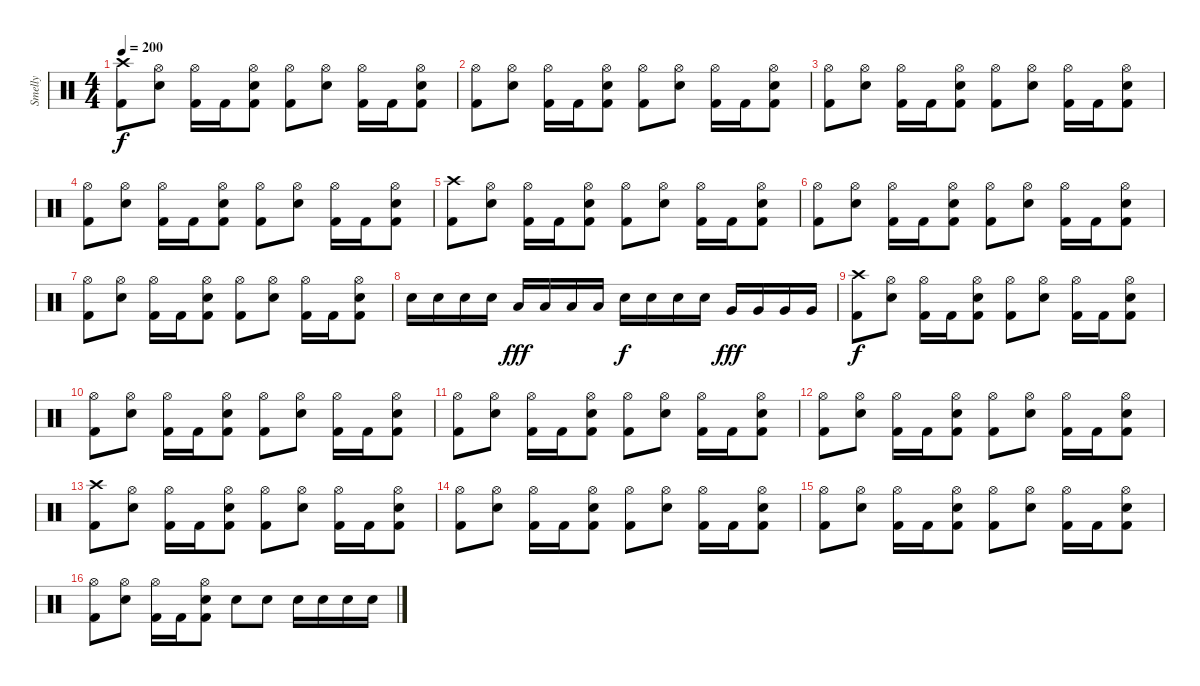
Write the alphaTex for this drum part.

\track ("Smelly" "Smelly") {instrument percussion}
\staff {score}
\articulation defaults
\ts (4 4)
\tempo 200
\clef neutral
\ks c
("Crash high (hit)" "Kick (hit) 2").8{dy f} ("Hi-Hat (open)" "Electric Snare (hit)").8 ("Hi-Hat (open)" "Kick (hit) 2").16 "Kick (hit) 2".16 ("Hi-Hat (open)" "Electric Snare (hit)" "Kick (hit) 2").8 ("Hi-Hat (open)" "Kick (hit) 2").8 ("Hi-Hat (open)" "Electric Snare (hit)").8 ("Hi-Hat (open)" "Kick (hit) 2").16 "Kick (hit) 2".16 ("Hi-Hat (open)" "Electric Snare (hit)" "Kick (hit) 2").8 |
("Hi-Hat (open)" "Kick (hit) 2").8 ("Hi-Hat (open)" "Electric Snare (hit)").8 ("Hi-Hat (open)" "Kick (hit) 2").16 "Kick (hit) 2".16 ("Hi-Hat (open)" "Electric Snare (hit)" "Kick (hit) 2").8 ("Hi-Hat (open)" "Kick (hit) 2").8 ("Hi-Hat (open)" "Electric Snare (hit)").8 ("Hi-Hat (open)" "Kick (hit) 2").16 "Kick (hit) 2".16 ("Hi-Hat (open)" "Electric Snare (hit)" "Kick (hit) 2").8 |
("Hi-Hat (open)" "Kick (hit) 2").8 ("Hi-Hat (open)" "Electric Snare (hit)").8 ("Hi-Hat (open)" "Kick (hit) 2").16 "Kick (hit) 2".16 ("Hi-Hat (open)" "Electric Snare (hit)" "Kick (hit) 2").8 ("Hi-Hat (open)" "Kick (hit) 2").8 ("Hi-Hat (open)" "Electric Snare (hit)").8 ("Hi-Hat (open)" "Kick (hit) 2").16 "Kick (hit) 2".16 ("Hi-Hat (open)" "Electric Snare (hit)" "Kick (hit) 2").8 |
("Hi-Hat (open)" "Kick (hit) 2").8 ("Hi-Hat (open)" "Electric Snare (hit)").8 ("Hi-Hat (open)" "Kick (hit) 2").16 "Kick (hit) 2".16 ("Hi-Hat (open)" "Electric Snare (hit)" "Kick (hit) 2").8 ("Hi-Hat (open)" "Kick (hit) 2").8 ("Hi-Hat (open)" "Electric Snare (hit)").8 ("Hi-Hat (open)" "Kick (hit) 2").16 "Kick (hit) 2".16 ("Hi-Hat (open)" "Electric Snare (hit)" "Kick (hit) 2").8 |
("Crash high (hit)" "Kick (hit) 2").8 ("Hi-Hat (open)" "Electric Snare (hit)").8 ("Hi-Hat (open)" "Kick (hit) 2").16 "Kick (hit) 2".16 ("Hi-Hat (open)" "Electric Snare (hit)" "Kick (hit) 2").8 ("Hi-Hat (open)" "Kick (hit) 2").8 ("Hi-Hat (open)" "Electric Snare (hit)").8 ("Hi-Hat (open)" "Kick (hit) 2").16 "Kick (hit) 2".16 ("Hi-Hat (open)" "Electric Snare (hit)" "Kick (hit) 2").8 |
("Hi-Hat (open)" "Kick (hit) 2").8 ("Hi-Hat (open)" "Electric Snare (hit)").8 ("Hi-Hat (open)" "Kick (hit) 2").16 "Kick (hit) 2".16 ("Hi-Hat (open)" "Electric Snare (hit)" "Kick (hit) 2").8 ("Hi-Hat (open)" "Kick (hit) 2").8 ("Hi-Hat (open)" "Electric Snare (hit)").8 ("Hi-Hat (open)" "Kick (hit) 2").16 "Kick (hit) 2".16 ("Hi-Hat (open)" "Electric Snare (hit)" "Kick (hit) 2").8 |
("Hi-Hat (open)" "Kick (hit) 2").8 ("Hi-Hat (open)" "Electric Snare (hit)").8 ("Hi-Hat (open)" "Kick (hit) 2").16 "Kick (hit) 2".16 ("Hi-Hat (open)" "Electric Snare (hit)" "Kick (hit) 2").8 ("Hi-Hat (open)" "Kick (hit) 2").8 ("Hi-Hat (open)" "Electric Snare (hit)").8 ("Hi-Hat (open)" "Kick (hit) 2").16 "Kick (hit) 2".16 ("Hi-Hat (open)" "Electric Snare (hit)" "Kick (hit) 2").8 |
"Electric Snare (hit)".16 "Electric Snare (hit)".16 "Electric Snare (hit)".16 "Electric Snare (hit)".16 "Low Tom (hit)".16{dy fff} "Low Tom (hit)".16 "Low Tom (hit)".16 "Low Tom (hit)".16 "Electric Snare (hit)".16{dy f} "Electric Snare (hit)".16 "Electric Snare (hit)".16 "Electric Snare (hit)".16 "Very Low Tom (hit)".16{dy fff} "Very Low Tom (hit)".16 "Very Low Tom (hit)".16 "Very Low Tom (hit)".16 |
("Crash high (hit)" "Kick (hit) 2").8{dy f} ("Hi-Hat (open)" "Electric Snare (hit)").8 ("Hi-Hat (open)" "Kick (hit) 2").16 "Kick (hit) 2".16 ("Hi-Hat (open)" "Electric Snare (hit)" "Kick (hit) 2").8 ("Hi-Hat (open)" "Kick (hit) 2").8 ("Hi-Hat (open)" "Electric Snare (hit)").8 ("Hi-Hat (open)" "Kick (hit) 2").16 "Kick (hit) 2".16 ("Hi-Hat (open)" "Electric Snare (hit)" "Kick (hit) 2").8 |
("Hi-Hat (open)" "Kick (hit) 2").8 ("Hi-Hat (open)" "Electric Snare (hit)").8 ("Hi-Hat (open)" "Kick (hit) 2").16 "Kick (hit) 2".16 ("Hi-Hat (open)" "Electric Snare (hit)" "Kick (hit) 2").8 ("Hi-Hat (open)" "Kick (hit) 2").8 ("Hi-Hat (open)" "Electric Snare (hit)").8 ("Hi-Hat (open)" "Kick (hit) 2").16 "Kick (hit) 2".16 ("Hi-Hat (open)" "Electric Snare (hit)" "Kick (hit) 2").8 |
("Hi-Hat (open)" "Kick (hit) 2").8 ("Hi-Hat (open)" "Electric Snare (hit)").8 ("Hi-Hat (open)" "Kick (hit) 2").16 "Kick (hit) 2".16 ("Hi-Hat (open)" "Electric Snare (hit)" "Kick (hit) 2").8 ("Hi-Hat (open)" "Kick (hit) 2").8 ("Hi-Hat (open)" "Electric Snare (hit)").8 ("Hi-Hat (open)" "Kick (hit) 2").16 "Kick (hit) 2".16 ("Hi-Hat (open)" "Electric Snare (hit)" "Kick (hit) 2").8 |
("Hi-Hat (open)" "Kick (hit) 2").8 ("Hi-Hat (open)" "Electric Snare (hit)").8 ("Hi-Hat (open)" "Kick (hit) 2").16 "Kick (hit) 2".16 ("Hi-Hat (open)" "Electric Snare (hit)" "Kick (hit) 2").8 ("Hi-Hat (open)" "Kick (hit) 2").8 ("Hi-Hat (open)" "Electric Snare (hit)").8 ("Hi-Hat (open)" "Kick (hit) 2").16 "Kick (hit) 2".16 ("Hi-Hat (open)" "Electric Snare (hit)" "Kick (hit) 2").8 |
("Crash high (hit)" "Kick (hit) 2").8 ("Hi-Hat (open)" "Electric Snare (hit)").8 ("Hi-Hat (open)" "Kick (hit) 2").16 "Kick (hit) 2".16 ("Hi-Hat (open)" "Electric Snare (hit)" "Kick (hit) 2").8 ("Hi-Hat (open)" "Kick (hit) 2").8 ("Hi-Hat (open)" "Electric Snare (hit)").8 ("Hi-Hat (open)" "Kick (hit) 2").16 "Kick (hit) 2".16 ("Hi-Hat (open)" "Electric Snare (hit)" "Kick (hit) 2").8 |
("Hi-Hat (open)" "Kick (hit) 2").8 ("Hi-Hat (open)" "Electric Snare (hit)").8 ("Hi-Hat (open)" "Kick (hit) 2").16 "Kick (hit) 2".16 ("Hi-Hat (open)" "Electric Snare (hit)" "Kick (hit) 2").8 ("Hi-Hat (open)" "Kick (hit) 2").8 ("Hi-Hat (open)" "Electric Snare (hit)").8 ("Hi-Hat (open)" "Kick (hit) 2").16 "Kick (hit) 2".16 ("Hi-Hat (open)" "Electric Snare (hit)" "Kick (hit) 2").8 |
("Hi-Hat (open)" "Kick (hit) 2").8 ("Hi-Hat (open)" "Electric Snare (hit)").8 ("Hi-Hat (open)" "Kick (hit) 2").16 "Kick (hit) 2".16 ("Hi-Hat (open)" "Electric Snare (hit)" "Kick (hit) 2").8 ("Hi-Hat (open)" "Kick (hit) 2").8 ("Hi-Hat (open)" "Electric Snare (hit)").8 ("Hi-Hat (open)" "Kick (hit) 2").16 "Kick (hit) 2".16 ("Hi-Hat (open)" "Electric Snare (hit)" "Kick (hit) 2").8 |
("Hi-Hat (open)" "Kick (hit) 2").8 ("Hi-Hat (open)" "Electric Snare (hit)").8 ("Hi-Hat (open)" "Kick (hit) 2").16 "Kick (hit) 2".16 ("Hi-Hat (open)" "Electric Snare (hit)" "Kick (hit) 2").8 "Electric Snare (hit)".8 "Electric Snare (hit)".8 "Electric Snare (hit)".16 "Electric Snare (hit)".16 "Electric Snare (hit)".16 "Electric Snare (hit)".16
